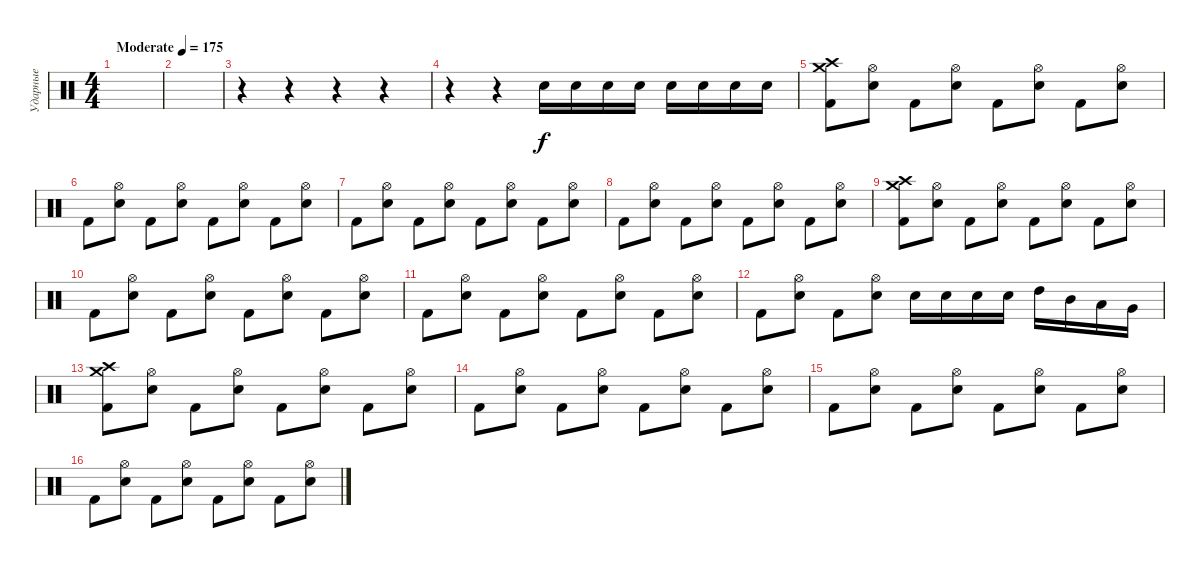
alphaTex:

\track ("Ударные" "Ударные") {instrument percussion}
\staff {score}
\articulation defaults
\ts (4 4)
\tempo (175 "Moderate")
\clef neutral
\ks c
|
|
r.4 r.4 r.4 r.4 |
r.4 r.4 "Electric Snare (hit)".16 "Electric Snare (hit)".16 "Electric Snare (hit)".16 "Electric Snare (hit)".16 "Electric Snare (hit)".16 "Electric Snare (hit)".16 "Electric Snare (hit)".16 "Electric Snare (hit)".16 |
("Crash medium (hit)" "Crash high (hit)" "Kick (hit) 2").8 ("Hi-Hat (open)" "Electric Snare (hit)").8 "Kick (hit) 2".8 ("Hi-Hat (open)" "Electric Snare (hit)").8 "Kick (hit) 2".8 ("Hi-Hat (open)" "Electric Snare (hit)").8 "Kick (hit) 2".8 ("Hi-Hat (open)" "Electric Snare (hit)").8 |
"Kick (hit) 2".8 ("Hi-Hat (open)" "Electric Snare (hit)").8 "Kick (hit) 2".8 ("Hi-Hat (open)" "Electric Snare (hit)").8 "Kick (hit) 2".8 ("Hi-Hat (open)" "Electric Snare (hit)").8 "Kick (hit) 2".8 ("Hi-Hat (open)" "Electric Snare (hit)").8 |
"Kick (hit) 2".8 ("Hi-Hat (open)" "Electric Snare (hit)").8 "Kick (hit) 2".8 ("Hi-Hat (open)" "Electric Snare (hit)").8 "Kick (hit) 2".8 ("Hi-Hat (open)" "Electric Snare (hit)").8 "Kick (hit) 2".8 ("Hi-Hat (open)" "Electric Snare (hit)").8 |
"Kick (hit) 2".8 ("Hi-Hat (open)" "Electric Snare (hit)").8 "Kick (hit) 2".8 ("Hi-Hat (open)" "Electric Snare (hit)").8 "Kick (hit) 2".8 ("Hi-Hat (open)" "Electric Snare (hit)").8 "Kick (hit) 2".8 ("Hi-Hat (open)" "Electric Snare (hit)").8 |
("Crash medium (hit)" "Crash high (hit)" "Kick (hit) 2").8 ("Hi-Hat (open)" "Electric Snare (hit)").8 "Kick (hit) 2".8 ("Hi-Hat (open)" "Electric Snare (hit)").8 "Kick (hit) 2".8 ("Hi-Hat (open)" "Electric Snare (hit)").8 "Kick (hit) 2".8 ("Hi-Hat (open)" "Electric Snare (hit)").8 |
"Kick (hit) 2".8 ("Hi-Hat (open)" "Electric Snare (hit)").8 "Kick (hit) 2".8 ("Hi-Hat (open)" "Electric Snare (hit)").8 "Kick (hit) 2".8 ("Hi-Hat (open)" "Electric Snare (hit)").8 "Kick (hit) 2".8 ("Hi-Hat (open)" "Electric Snare (hit)").8 |
"Kick (hit) 2".8 ("Hi-Hat (open)" "Electric Snare (hit)").8 "Kick (hit) 2".8 ("Hi-Hat (open)" "Electric Snare (hit)").8 "Kick (hit) 2".8 ("Hi-Hat (open)" "Electric Snare (hit)").8 "Kick (hit) 2".8 ("Hi-Hat (open)" "Electric Snare (hit)").8 |
"Kick (hit) 2".8 ("Hi-Hat (open)" "Electric Snare (hit)").8 "Kick (hit) 2".8 ("Hi-Hat (open)" "Electric Snare (hit)").8 "Electric Snare (hit)".16 "Electric Snare (hit)".16 "Electric Snare (hit)".16 "Electric Snare (hit)".16 "High Tom (hit)".16 "Mid Tom (hit)".16 "Low Tom (hit)".16 "Very Low Tom (hit)".16 |
("Crash medium (hit)" "Crash high (hit)" "Kick (hit) 2").8 ("Hi-Hat (open)" "Electric Snare (hit)").8 "Kick (hit) 2".8 ("Hi-Hat (open)" "Electric Snare (hit)").8 "Kick (hit) 2".8 ("Hi-Hat (open)" "Electric Snare (hit)").8 "Kick (hit) 2".8 ("Hi-Hat (open)" "Electric Snare (hit)").8 |
"Kick (hit) 2".8 ("Hi-Hat (open)" "Electric Snare (hit)").8 "Kick (hit) 2".8 ("Hi-Hat (open)" "Electric Snare (hit)").8 "Kick (hit) 2".8 ("Hi-Hat (open)" "Electric Snare (hit)").8 "Kick (hit) 2".8 ("Hi-Hat (open)" "Electric Snare (hit)").8 |
"Kick (hit) 2".8 ("Hi-Hat (open)" "Electric Snare (hit)").8 "Kick (hit) 2".8 ("Hi-Hat (open)" "Electric Snare (hit)").8 "Kick (hit) 2".8 ("Hi-Hat (open)" "Electric Snare (hit)").8 "Kick (hit) 2".8 ("Hi-Hat (open)" "Electric Snare (hit)").8 |
"Kick (hit) 2".8 ("Hi-Hat (open)" "Electric Snare (hit)").8 "Kick (hit) 2".8 ("Hi-Hat (open)" "Electric Snare (hit)").8 "Kick (hit) 2".8 ("Hi-Hat (open)" "Electric Snare (hit)").8 "Kick (hit) 2".8 ("Hi-Hat (open)" "Electric Snare (hit)").8
